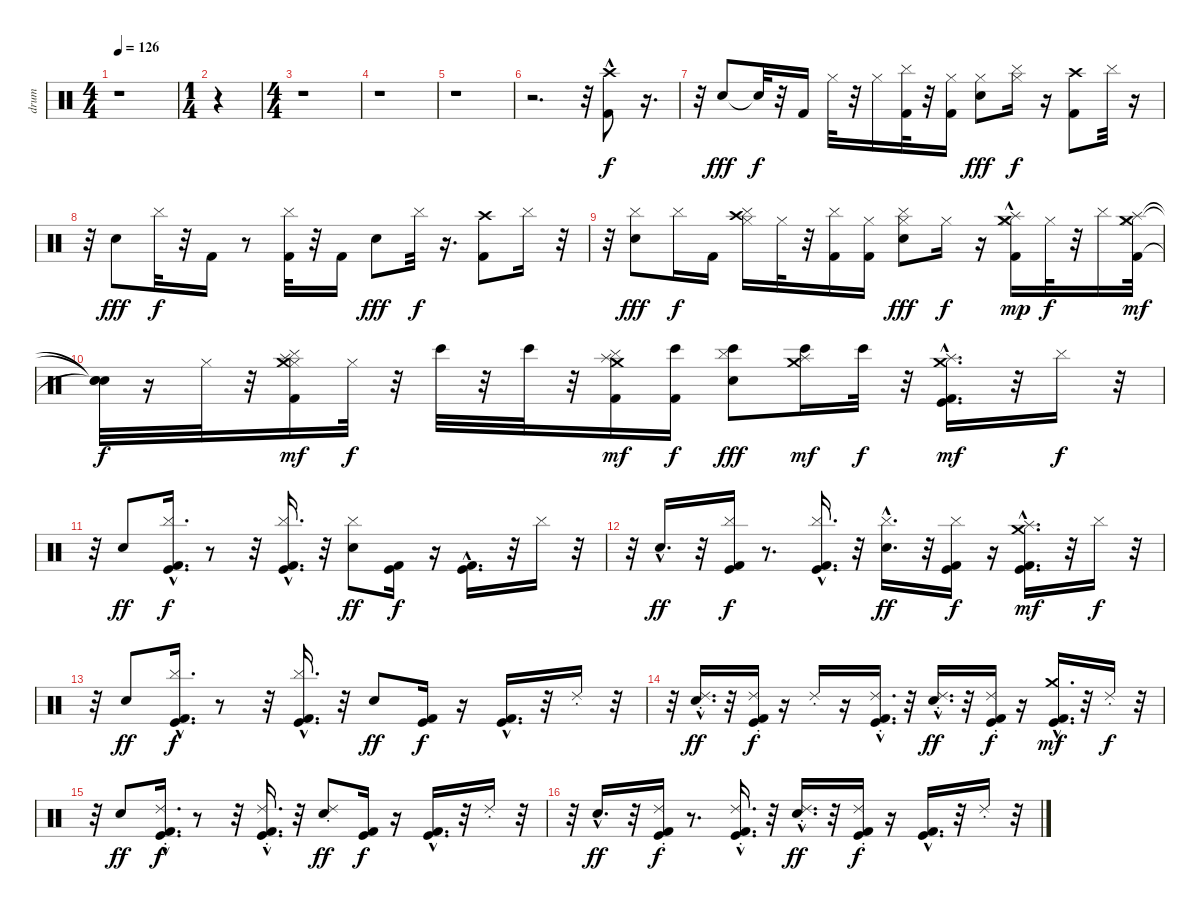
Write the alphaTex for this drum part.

\track ("drum" "drum") {instrument percussion}
\staff {score}
\articulation defaults
\ts (4 4)
\tempo 126
\clef neutral
\ks c
r.1{dy f} |
\ts (1 4)
r.4 |
\ts (4 4)
r.1 |
r.1 |
r.1 |
r.2{d} r.32 ("Kick (hit) 2" "Crash high (hit)"{hac}).8 r.16{d} |
r.32 "Electric Snare (hit)".8{dy fff} "Snare (hit)"{t}.32{dy f} r.32 "Kick (hit) 2".16 "Hi-Hat (closed)".32 r.32 "Hi-Hat (closed)".16 ("Cymbal (hit)" "Kick (hit) 2").32 r.32 ("Kick (hit) 2" "Hi-Hat (closed)").16 ("Electric Snare (hit)" "Hi-Hat (closed)").8{dy fff} ("Cymbal (hit)" "Hi-Hat (closed)").16{dy f} r.16 ("Kick (hit) 2" "Crash high (hit)").8 "Cymbal (hit)".32 r.16 |
r.32 "Electric Snare (hit)".8{dy fff} "Cymbal (hit)".32{dy f} r.32 "Kick (hit) 2".16 r.8 ("Cymbal (hit)" "Kick (hit) 2").32 r.32 "Kick (hit) 2".16 "Electric Snare (hit)".8{dy fff} "Cymbal (hit)".32{dy f} r.16{d} ("Kick (hit) 2" "Crash high (hit)").8 "Cymbal (hit)".16 r.32 |
r.32 ("Cymbal (hit)" "Electric Snare (hit)").8{dy fff} "Cymbal (hit)".16{dy f} "Kick (hit) 2".16 ("Cymbal (hit)" "Hi-Hat (closed)" "Crash high (hit)").16 "Hi-Hat (closed)".32 r.32 ("Cymbal (hit)" "Kick (hit) 2").16 ("Kick (hit) 2" "Hi-Hat (closed)").16 ("Cymbal (hit)" "Electric Snare (hit)" "Hi-Hat (closed)").8{dy fff} "Hi-Hat (closed)".16{dy f} r.16 ("Kick (hit) 2"{hac} "Crash medium (hit)" "Splash (hit)" "Hi-Hat (closed)").16{dy mp} "Hi-Hat (closed)".32{dy f} r.32 "Cymbal (hit)".16 ("Kick (hit) 2" "Hi-Hat (closed)" "Splash (hit)" "Crash medium (hit)").32{dy mf} |
("Snare (hit)"{t} "Snare (hit)"{t} "Snare (hit)"{t}).32{dy f} r.16 "Hi-Hat (closed)".32 r.32 ("Cymbal (hit)" "Kick (hit) 2" "Hi-Hat (closed)" "Splash (hit)" "Crash medium (hit)").16{dy mf} "Hi-Hat (closed)".32{dy f} r.32 "Bongo High (hit)".32 r.32 "Bongo High (hit)".32 r.32 ("Cymbal (hit)" "Kick (hit) 2" "Crash medium (hit)" "Splash (hit)").16{dy mf} ("Kick (hit) 2" "Bongo High (hit)").16{dy f} ("Cymbal (hit)" "Electric Snare (hit)" "Bongo High (hit)").8{dy fff} ("Splash (hit)" "Crash medium (hit)" "Bongo High (hit)").16{dy mf} "Bongo High (hit)".32{dy f} r.32 ("Kick (hit) 2" "Kick (hit)"{hac} "Splash (hit)" "Crash medium (hit)").16{d dy mf} r.32 "Cymbal (hit)".16{dy f} r.32 |
r.32 "Electric Snare (hit)".8{dy ff} ("Cymbal (hit)" "Kick (hit)"{hac} "Kick (hit) 2"{hac}).16{d dy f} r.8 r.32 ("Cymbal (hit)" "Kick (hit) 2"{hac} "Kick (hit)"{hac}).16{d} r.32 ("Cymbal (hit)" "Electric Snare (hit)").8{dy ff} ("Kick (hit) 2" "Kick (hit)").16{dy f} r.16 ("Kick (hit) 2"{hac} "Kick (hit)"{hac}).16{d} r.32 "Cymbal (hit)".16 r.32 |
r.32 "Electric Snare (hit)"{hac}.16{d dy ff} r.32 ("Cymbal (hit)" "Kick (hit)" "Kick (hit) 2").16{dy f} r.8{d} ("Cymbal (hit)" "Kick (hit)"{hac} "Kick (hit) 2"{hac}).16{d} r.32 ("Cymbal (hit)" "Electric Snare (hit)"{hac}).16{d dy ff} r.32 ("Cymbal (hit)" "Kick (hit) 2" "Kick (hit)").16{dy f} r.16 ("Splash (hit)" "Crash medium (hit)" "Kick (hit) 2" "Kick (hit)"{hac}).16{d dy mf} r.32 "Cymbal (hit)".16{dy f} r.32 |
r.32 "Electric Snare (hit)".8{dy ff} ("Cymbal (hit)" "Kick (hit)"{hac} "Kick (hit) 2"{hac}).16{d dy f} r.8 r.32 ("Cymbal (hit)" "Kick (hit) 2"{hac} "Kick (hit)"{hac}).16{d} r.32 "Electric Snare (hit)".8{dy ff} ("Kick (hit) 2" "Kick (hit)").16{dy f} r.16 ("Kick (hit) 2"{hac} "Kick (hit)"{hac}).16{d} r.32 "Ride (choke) 2".16 r.32 |
r.32 ("Ride (choke) 2" "Electric Snare (hit)"{hac}).16{d dy ff} r.32 ("Ride (choke) 2" "Kick (hit)" "Kick (hit) 2").16{dy f} r.16 "Ride (choke) 2".16 r.16 ("Ride (choke) 2" "Kick (hit)"{hac} "Kick (hit) 2"{hac}).16{d} r.32 ("Ride (choke) 2" "Electric Snare (hit)"{hac}).16{d dy ff} r.32 ("Ride (choke) 2" "Kick (hit) 2" "Kick (hit)").16{dy f} r.16 ("Crash medium (hit)" "Kick (hit) 2" "Kick (hit)"{hac}).16{d dy mf} r.32 "Ride (choke) 2".16{dy f} r.32 |
r.32 "Electric Snare (hit)".8{dy ff} ("Ride (choke) 2" "Kick (hit)"{hac} "Kick (hit) 2"{hac}).16{d dy f} r.8 r.32 ("Ride (choke) 2" "Kick (hit) 2"{hac} "Kick (hit)"{hac}).16{d} r.32 ("Ride (choke) 2" "Electric Snare (hit)").8{dy ff} ("Kick (hit) 2" "Kick (hit)").16{dy f} r.16 ("Kick (hit) 2"{hac} "Kick (hit)"{hac}).16{d} r.32 "Ride (choke) 2".16 r.32 |
r.32 "Electric Snare (hit)"{hac}.16{d dy ff} r.32 ("Ride (choke) 2" "Kick (hit)" "Kick (hit) 2").16{dy f} r.8{d} ("Ride (choke) 2" "Kick (hit)"{hac} "Kick (hit) 2"{hac}).16{d} r.32 ("Ride (choke) 2" "Electric Snare (hit)"{hac}).16{d dy ff} r.32 ("Ride (choke) 2" "Kick (hit) 2" "Kick (hit)").16{dy f} r.16 ("Kick (hit) 2" "Kick (hit)"{hac}).16{d} r.32 "Ride (choke) 2".16 r.32
